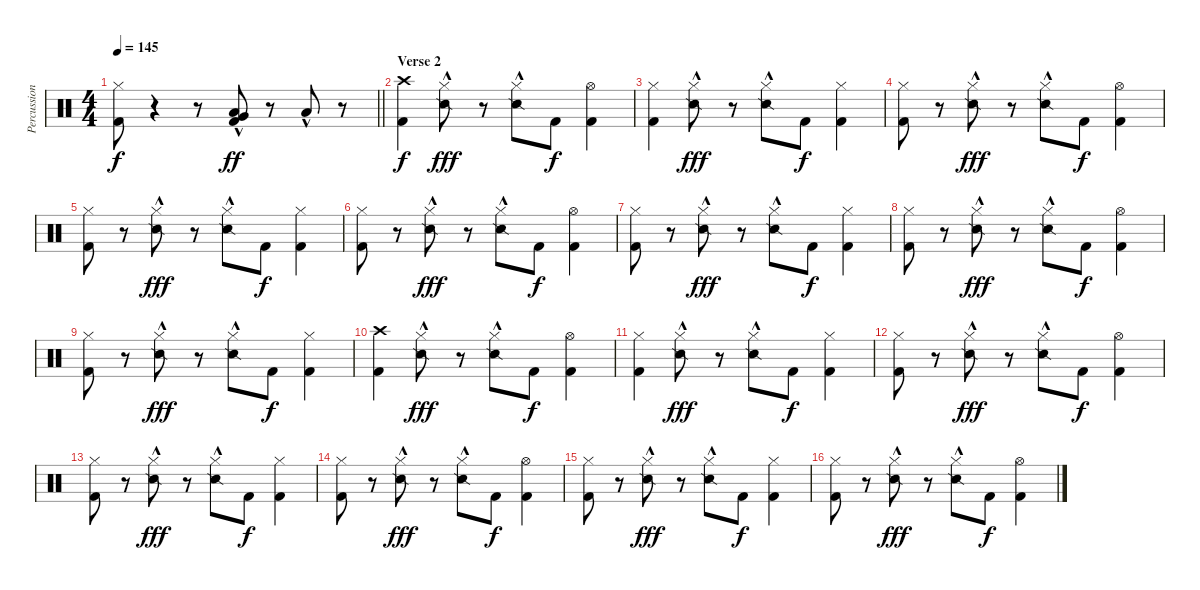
\track ("Percussion 1" "Percussion") {instrument percussion}
\staff {score}
\articulation defaults
\ts (4 4)
\tempo 145
\clef neutral
\barLineRight lightlight
\ks c
("Hi-Hat (closed)" "Kick (hit) 2").8{dy f} r.4 r.8 ("Very Low Tom (hit)"{hac} "Low Tom (hit)"{hac} "Kick (hit) 2"{hac}).8{dy ff} r.8 "Low Tom (hit)"{hac}.8 r.8 |
\section ("" "Verse 2")
("Crash high (hit)" "Kick (hit) 2").4{dy f} ("Hi-Hat (closed)" "Snare (side stick) 2"{hac}).8{dy fff} r.8 ("Hi-Hat (closed)" "Snare (side stick) 2"{hac}).8 "Kick (hit) 2".8{dy f} ("Hi-Hat (open)" "Kick (hit) 2").4 |
("Hi-Hat (closed)" "Kick (hit) 2").4 ("Hi-Hat (closed)" "Snare (side stick) 2"{hac}).8{dy fff} r.8 ("Hi-Hat (closed)" "Snare (side stick) 2"{hac}).8 "Kick (hit) 2".8{dy f} ("Hi-Hat (closed)" "Kick (hit) 2").4 |
("Hi-Hat (closed)" "Kick (hit) 2").8 r.8 ("Hi-Hat (closed)" "Snare (side stick) 2"{hac}).8{dy fff} r.8 ("Hi-Hat (closed)" "Snare (side stick) 2"{hac}).8 "Kick (hit) 2".8{dy f} ("Hi-Hat (open)" "Kick (hit) 2").4 |
("Hi-Hat (closed)" "Kick (hit) 2").8 r.8 ("Hi-Hat (closed)" "Snare (side stick) 2"{hac}).8{dy fff} r.8 ("Hi-Hat (closed)" "Snare (side stick) 2"{hac}).8 "Kick (hit) 2".8{dy f} ("Hi-Hat (closed)" "Kick (hit) 2").4 |
("Hi-Hat (closed)" "Kick (hit) 2").8 r.8 ("Hi-Hat (closed)" "Snare (side stick) 2"{hac}).8{dy fff} r.8 ("Hi-Hat (closed)" "Snare (side stick) 2"{hac}).8 "Kick (hit) 2".8{dy f} ("Hi-Hat (open)" "Kick (hit) 2").4 |
("Hi-Hat (closed)" "Kick (hit) 2").8 r.8 ("Hi-Hat (closed)" "Snare (side stick) 2"{hac}).8{dy fff} r.8 ("Hi-Hat (closed)" "Snare (side stick) 2"{hac}).8 "Kick (hit) 2".8{dy f} ("Hi-Hat (closed)" "Kick (hit) 2").4 |
("Hi-Hat (closed)" "Kick (hit) 2").8 r.8 ("Hi-Hat (closed)" "Snare (side stick) 2"{hac}).8{dy fff} r.8 ("Hi-Hat (closed)" "Snare (side stick) 2"{hac}).8 "Kick (hit) 2".8{dy f} ("Hi-Hat (open)" "Kick (hit) 2").4 |
("Hi-Hat (closed)" "Kick (hit) 2").8 r.8 ("Hi-Hat (closed)" "Snare (side stick) 2"{hac}).8{dy fff} r.8 ("Hi-Hat (closed)" "Snare (side stick) 2"{hac}).8 "Kick (hit) 2".8{dy f} ("Hi-Hat (closed)" "Kick (hit) 2").4 |
("Crash high (hit)" "Kick (hit) 2").4 ("Hi-Hat (closed)" "Snare (side stick) 2"{hac}).8{dy fff} r.8 ("Hi-Hat (closed)" "Snare (side stick) 2"{hac}).8 "Kick (hit) 2".8{dy f} ("Hi-Hat (open)" "Kick (hit) 2").4 |
("Hi-Hat (closed)" "Kick (hit) 2").4 ("Hi-Hat (closed)" "Snare (side stick) 2"{hac}).8{dy fff} r.8 ("Hi-Hat (closed)" "Snare (side stick) 2"{hac}).8 "Kick (hit) 2".8{dy f} ("Hi-Hat (closed)" "Kick (hit) 2").4 |
("Hi-Hat (closed)" "Kick (hit) 2").8 r.8 ("Hi-Hat (closed)" "Snare (side stick) 2"{hac}).8{dy fff} r.8 ("Hi-Hat (closed)" "Snare (side stick) 2"{hac}).8 "Kick (hit) 2".8{dy f} ("Hi-Hat (open)" "Kick (hit) 2").4 |
("Hi-Hat (closed)" "Kick (hit) 2").8 r.8 ("Hi-Hat (closed)" "Snare (side stick) 2"{hac}).8{dy fff} r.8 ("Hi-Hat (closed)" "Snare (side stick) 2"{hac}).8 "Kick (hit) 2".8{dy f} ("Hi-Hat (closed)" "Kick (hit) 2").4 |
("Hi-Hat (closed)" "Kick (hit) 2").8 r.8 ("Hi-Hat (closed)" "Snare (side stick) 2"{hac}).8{dy fff} r.8 ("Hi-Hat (closed)" "Snare (side stick) 2"{hac}).8 "Kick (hit) 2".8{dy f} ("Hi-Hat (open)" "Kick (hit) 2").4 |
("Hi-Hat (closed)" "Kick (hit) 2").8 r.8 ("Hi-Hat (closed)" "Snare (side stick) 2"{hac}).8{dy fff} r.8 ("Hi-Hat (closed)" "Snare (side stick) 2"{hac}).8 "Kick (hit) 2".8{dy f} ("Hi-Hat (closed)" "Kick (hit) 2").4 |
("Hi-Hat (closed)" "Kick (hit) 2").8 r.8 ("Hi-Hat (closed)" "Snare (side stick) 2"{hac}).8{dy fff} r.8 ("Hi-Hat (closed)" "Snare (side stick) 2"{hac}).8 "Kick (hit) 2".8{dy f} ("Hi-Hat (open)" "Kick (hit) 2").4
